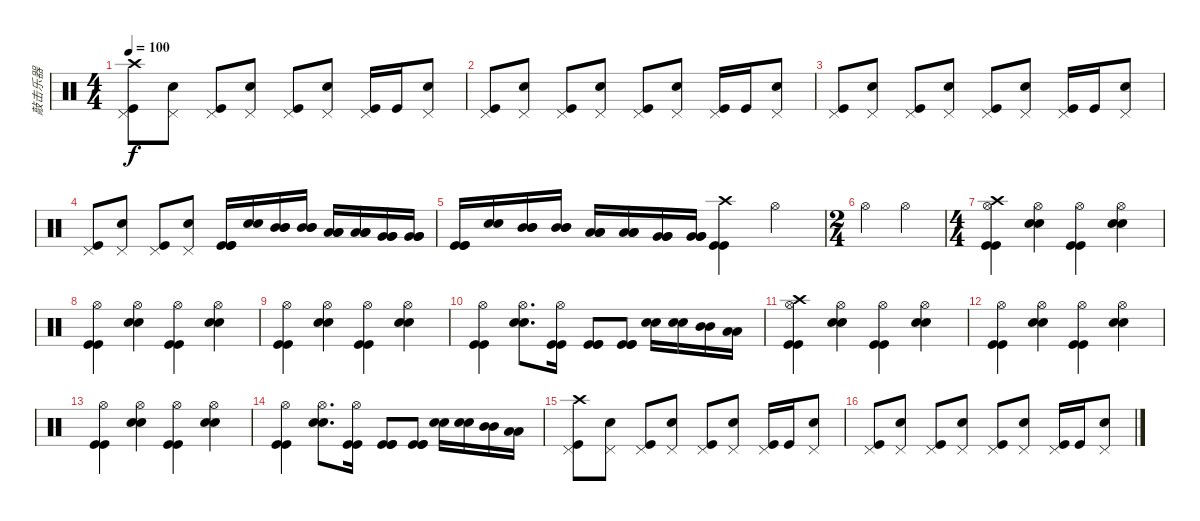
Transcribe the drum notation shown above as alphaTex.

\track ("敲击乐器" "敲击乐器") {instrument percussion}
\staff {score}
\articulation defaults
\ts (4 4)
\tempo 100
\clef neutral
\ks c
("Crash high (hit)" "Pedal Hi-Hat (hit)" "Kick (hit)").8{dy f} ("Pedal Hi-Hat (hit)" "Snare (hit) 2").8 ("Pedal Hi-Hat (hit)" "Kick (hit)").8 ("Pedal Hi-Hat (hit)" "Snare (hit) 2").8 ("Pedal Hi-Hat (hit)" "Kick (hit)").8 ("Pedal Hi-Hat (hit)" "Snare (hit) 2").8 ("Pedal Hi-Hat (hit)" "Kick (hit)").16 "Kick (hit)".16 ("Pedal Hi-Hat (hit)" "Snare (hit) 2").8 |
("Pedal Hi-Hat (hit)" "Kick (hit)").8 ("Pedal Hi-Hat (hit)" "Snare (hit) 2").8 ("Pedal Hi-Hat (hit)" "Kick (hit)").8 ("Pedal Hi-Hat (hit)" "Snare (hit) 2").8 ("Pedal Hi-Hat (hit)" "Kick (hit)").8 ("Pedal Hi-Hat (hit)" "Snare (hit) 2").8 ("Pedal Hi-Hat (hit)" "Kick (hit)").16 "Kick (hit)".16 ("Pedal Hi-Hat (hit)" "Snare (hit) 2").8 |
("Pedal Hi-Hat (hit)" "Kick (hit)").8 ("Pedal Hi-Hat (hit)" "Snare (hit) 2").8 ("Pedal Hi-Hat (hit)" "Kick (hit)").8 ("Pedal Hi-Hat (hit)" "Snare (hit) 2").8 ("Pedal Hi-Hat (hit)" "Kick (hit)").8 ("Pedal Hi-Hat (hit)" "Snare (hit) 2").8 ("Pedal Hi-Hat (hit)" "Kick (hit)").16 "Kick (hit)".16 ("Pedal Hi-Hat (hit)" "Snare (hit) 2").8 |
("Pedal Hi-Hat (hit)" "Kick (hit)").8 ("Pedal Hi-Hat (hit)" "Snare (hit) 2").8 ("Pedal Hi-Hat (hit)" "Kick (hit)").8 ("Pedal Hi-Hat (hit)" "Snare (hit) 2").8 ("Kick (hit)" "Kick (hit)" "Kick (hit)").16 ("Snare (hit) 2" "Snare (hit) 2").16 ("Mid Tom (hit)" "Mid Tom (hit)" "Mid Tom (hit)").16 ("Mid Tom (hit)" "Mid Tom (hit)" "Mid Tom (hit)").16 ("Low Tom (hit)" "Low Tom (hit)" "Low Tom (hit)").16 ("Low Tom (hit)" "Low Tom (hit)" "Low Tom (hit)").16 ("Very Low Tom (hit)" "Very Low Tom (hit)" "Very Low Tom (hit)").16 ("Very Low Tom (hit)" "Very Low Tom (hit)" "Very Low Tom (hit)").16 |
("Kick (hit)" "Kick (hit)" "Kick (hit)").16 ("Snare (hit) 2" "Snare (hit) 2").16 ("Mid Tom (hit)" "Mid Tom (hit)" "Mid Tom (hit)").16 ("Mid Tom (hit)" "Mid Tom (hit)" "Mid Tom (hit)").16 ("Low Tom (hit)" "Low Tom (hit)" "Low Tom (hit)").16 ("Low Tom (hit)" "Low Tom (hit)" "Low Tom (hit)").16 ("Very Low Tom (hit)" "Very Low Tom (hit)" "Very Low Tom (hit)").16 ("Very Low Tom (hit)" "Very Low Tom (hit)" "Very Low Tom (hit)").16 ("Kick (hit)" "Kick (hit)" "Crash high (hit)").4 "Hi-Hat (open)".4 |
\ts (2 4)
"Hi-Hat (open)".4 "Hi-Hat (open)".4 |
\ts (4 4)
("Hi-Hat (open)" "Crash high (hit)" "Kick (hit)" "Kick (hit)").4 ("Hi-Hat (open)" "Snare (hit) 2" "Snare (hit) 2").4 ("Hi-Hat (open)" "Kick (hit)" "Kick (hit)").4 ("Hi-Hat (open)" "Snare (hit) 2" "Snare (hit) 2").4 |
("Hi-Hat (open)" "Kick (hit)" "Kick (hit)").4 ("Hi-Hat (open)" "Snare (hit) 2" "Snare (hit) 2").4 ("Hi-Hat (open)" "Kick (hit)" "Kick (hit)").4 ("Hi-Hat (open)" "Snare (hit) 2" "Snare (hit) 2").4 |
("Hi-Hat (open)" "Kick (hit)" "Kick (hit)").4 ("Hi-Hat (open)" "Snare (hit) 2" "Snare (hit) 2").4 ("Hi-Hat (open)" "Kick (hit)" "Kick (hit)").4 ("Hi-Hat (open)" "Snare (hit) 2" "Snare (hit) 2").4 |
("Hi-Hat (open)" "Kick (hit)" "Kick (hit)").4 ("Hi-Hat (open)" "Snare (hit) 2" "Snare (hit) 2").8{d} ("Hi-Hat (open)" "Kick (hit)" "Kick (hit)").16 ("Kick (hit)" "Kick (hit)" "Kick (hit)").8 ("Kick (hit)" "Kick (hit)" "Kick (hit)").8 ("Snare (hit) 2" "Snare (hit) 2").16 ("Snare (hit) 2" "Snare (hit) 2").16 ("Mid Tom (hit)" "Mid Tom (hit)").16 ("Low Tom (hit)" "Low Tom (hit)").16 |
("Hi-Hat (open)" "Crash high (hit)" "Kick (hit)" "Kick (hit)").4 ("Hi-Hat (open)" "Snare (hit) 2" "Snare (hit) 2").4 ("Hi-Hat (open)" "Kick (hit)" "Kick (hit)").4 ("Hi-Hat (open)" "Snare (hit) 2" "Snare (hit) 2").4 |
("Hi-Hat (open)" "Kick (hit)" "Kick (hit)").4 ("Hi-Hat (open)" "Snare (hit) 2" "Snare (hit) 2").4 ("Hi-Hat (open)" "Kick (hit)" "Kick (hit)").4 ("Hi-Hat (open)" "Snare (hit) 2" "Snare (hit) 2").4 |
("Hi-Hat (open)" "Kick (hit)" "Kick (hit)").4 ("Hi-Hat (open)" "Snare (hit) 2" "Snare (hit) 2").4 ("Hi-Hat (open)" "Kick (hit)" "Kick (hit)").4 ("Hi-Hat (open)" "Snare (hit) 2" "Snare (hit) 2").4 |
("Hi-Hat (open)" "Kick (hit)" "Kick (hit)").4 ("Hi-Hat (open)" "Snare (hit) 2" "Snare (hit) 2").8{d} ("Hi-Hat (open)" "Kick (hit)" "Kick (hit)").16 ("Kick (hit)" "Kick (hit)" "Kick (hit)").8 ("Kick (hit)" "Kick (hit)" "Kick (hit)").8 ("Snare (hit) 2" "Snare (hit) 2").16 ("Snare (hit) 2" "Snare (hit) 2").16 ("Mid Tom (hit)" "Mid Tom (hit)").16 ("Low Tom (hit)" "Low Tom (hit)").16 |
("Crash high (hit)" "Pedal Hi-Hat (hit)" "Kick (hit)").8 ("Pedal Hi-Hat (hit)" "Snare (hit) 2").8 ("Pedal Hi-Hat (hit)" "Kick (hit)").8 ("Pedal Hi-Hat (hit)" "Snare (hit) 2").8 ("Pedal Hi-Hat (hit)" "Kick (hit)").8 ("Pedal Hi-Hat (hit)" "Snare (hit) 2").8 ("Pedal Hi-Hat (hit)" "Kick (hit)").16 "Kick (hit)".16 ("Pedal Hi-Hat (hit)" "Snare (hit) 2").8 |
("Pedal Hi-Hat (hit)" "Kick (hit)").8 ("Pedal Hi-Hat (hit)" "Snare (hit) 2").8 ("Pedal Hi-Hat (hit)" "Kick (hit)").8 ("Pedal Hi-Hat (hit)" "Snare (hit) 2").8 ("Pedal Hi-Hat (hit)" "Kick (hit)").8 ("Pedal Hi-Hat (hit)" "Snare (hit) 2").8 ("Pedal Hi-Hat (hit)" "Kick (hit)").16 "Kick (hit)".16 ("Pedal Hi-Hat (hit)" "Snare (hit) 2").8
